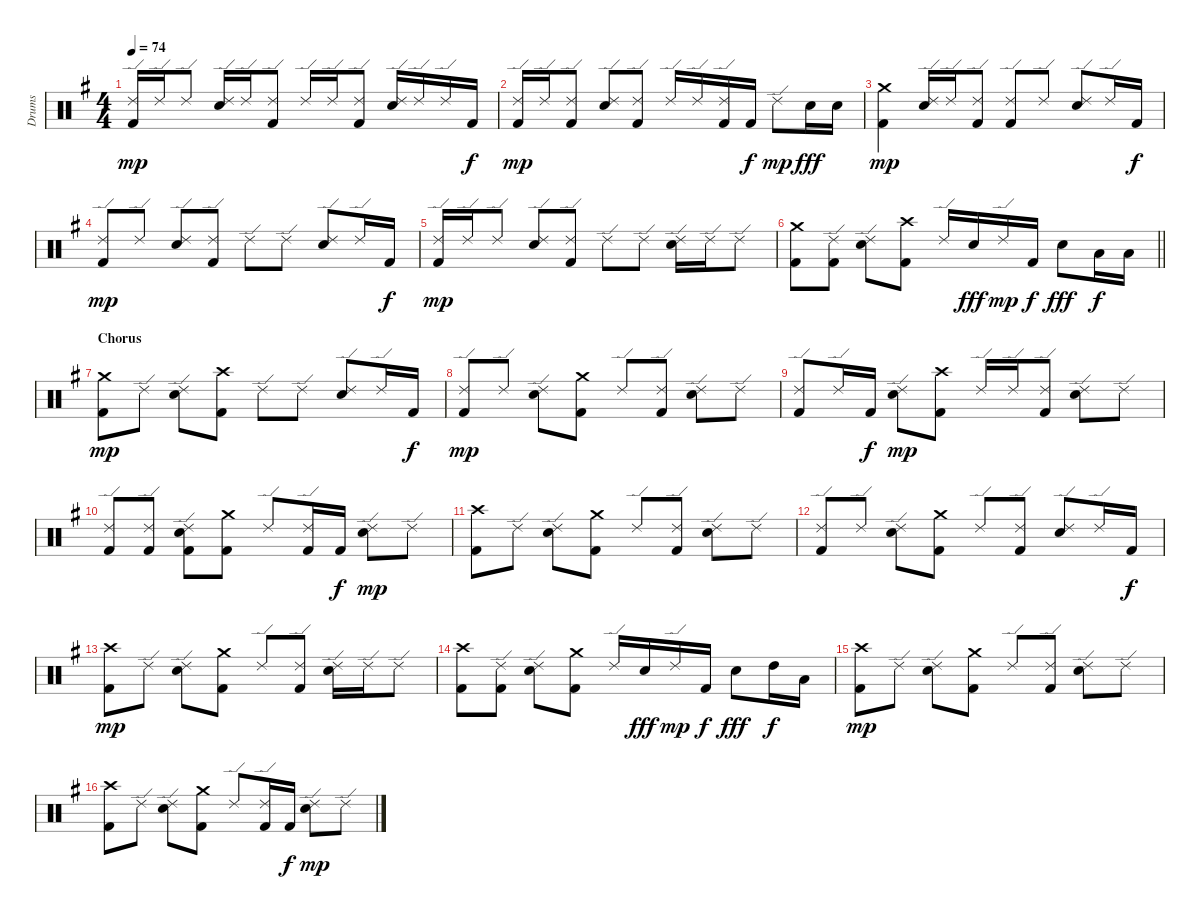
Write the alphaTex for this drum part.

\track ("Drums" "Drums") {instrument percussion}
\staff {score}
\articulation defaults
\ts (4 4)
\tempo 74
\clef neutral
\ks g
("Kick (hit) 2" "Ride (edge) 2").16{dy mp} "Ride (edge) 2".16 "Ride (edge) 2".8 ("Electric Snare (hit)" "Ride (edge) 2").16 "Ride (edge) 2".16 ("Kick (hit) 2" "Ride (edge) 2").8 "Ride (edge) 2".16 "Ride (edge) 2".16 ("Kick (hit) 2" "Ride (edge) 2").8 ("Electric Snare (hit)" "Ride (edge) 2").16 "Ride (edge) 2".16 "Ride (edge) 2".16 "Kick (hit) 2".16{dy f} |
("Kick (hit) 2" "Ride (edge) 2").16{dy mp} "Ride (edge) 2".16 ("Kick (hit) 2" "Ride (edge) 2").8 ("Electric Snare (hit)" "Ride (edge) 2").8 ("Kick (hit) 2" "Ride (edge) 2").8 "Ride (edge) 2".16 "Ride (edge) 2".16 ("Kick (hit) 2" "Ride (edge) 2").16 "Kick (hit) 2".16{dy f} "Ride (edge) 2".8{dy mp} "Electric Snare (hit)".16{dy fff} "Electric Snare (hit)".16 |
("Kick (hit) 2" "Crash medium (hit)").4{dy mp} ("Electric Snare (hit)" "Ride (edge) 2").16 "Ride (edge) 2".16 ("Kick (hit) 2" "Ride (edge) 2").8 ("Kick (hit) 2" "Ride (edge) 2").8 "Ride (edge) 2".8 ("Electric Snare (hit)" "Ride (edge) 2").8 "Ride (edge) 2".16 "Kick (hit) 2".16{dy f} |
("Kick (hit) 2" "Ride (edge) 2").8{dy mp} "Ride (edge) 2".8 ("Electric Snare (hit)" "Ride (edge) 2").8 ("Kick (hit) 2" "Ride (edge) 2").8 "Ride (edge) 2".8 "Ride (edge) 2".8 ("Electric Snare (hit)" "Ride (edge) 2").8 "Ride (edge) 2".16 "Kick (hit) 2".16{dy f} |
("Kick (hit) 2" "Ride (edge) 2").16{dy mp} "Ride (edge) 2".16 "Ride (edge) 2".8 ("Electric Snare (hit)" "Ride (edge) 2").8 ("Kick (hit) 2" "Ride (edge) 2").8 "Ride (edge) 2".8 "Ride (edge) 2".8 ("Electric Snare (hit)" "Ride (edge) 2").16 "Ride (edge) 2".16 "Ride (edge) 2".8 |
\barLineRight lightlight
("Kick (hit) 2" "Crash medium (hit)").8 ("Kick (hit) 2" "Ride (edge) 2").8 ("Electric Snare (hit)" "Ride (edge) 2").8 ("Kick (hit) 2" "Crash high (hit)").8 "Ride (edge) 2".16 "Electric Snare (hit)".16{dy fff} "Ride (edge) 2".16{dy mp} "Kick (hit) 2".16{dy f} "Electric Snare (hit)".8{dy fff} "Low Tom (hit)".16{dy f} "Low Floor Tom (hit)".16 |
\section ("" "Chorus")
("Kick (hit) 2" "Crash medium (hit)").8{dy mp} "Ride (edge) 2".8 ("Electric Snare (hit)" "Ride (edge) 2").8 ("Kick (hit) 2" "Crash high (hit)").8 "Ride (edge) 2".8 "Ride (edge) 2".8 ("Electric Snare (hit)" "Ride (edge) 2").8 "Ride (edge) 2".16 "Kick (hit) 2".16{dy f} |
("Kick (hit) 2" "Ride (edge) 2").8{dy mp} "Ride (edge) 2".8 ("Electric Snare (hit)" "Ride (edge) 2").8 ("Kick (hit) 2" "Crash medium (hit)").8 "Ride (edge) 2".8 ("Kick (hit) 2" "Ride (edge) 2").8 ("Electric Snare (hit)" "Ride (edge) 2").8 "Ride (edge) 2".8 |
("Kick (hit) 2" "Ride (edge) 2").8 "Ride (edge) 2".16 "Kick (hit) 2".16{dy f} ("Electric Snare (hit)" "Ride (edge) 2").8{dy mp} ("Kick (hit) 2" "Crash high (hit)").8 "Ride (edge) 2".16 "Ride (edge) 2".16 ("Kick (hit) 2" "Ride (edge) 2").8 ("Electric Snare (hit)" "Ride (edge) 2").8 "Ride (edge) 2".8 |
("Kick (hit) 2" "Ride (edge) 2").8 ("Kick (hit) 2" "Ride (edge) 2").8 ("Kick (hit) 2" "Electric Snare (hit)" "Ride (edge) 2").8 ("Kick (hit) 2" "Crash medium (hit)").8 "Ride (edge) 2".8 ("Kick (hit) 2" "Ride (edge) 2").16 "Kick (hit) 2".16{dy f} ("Electric Snare (hit)" "Ride (edge) 2").8{dy mp} "Ride (edge) 2".8 |
("Kick (hit) 2" "Crash high (hit)").8 "Ride (edge) 2".8 ("Electric Snare (hit)" "Ride (edge) 2").8 ("Kick (hit) 2" "Crash medium (hit)").8 "Ride (edge) 2".8 ("Kick (hit) 2" "Ride (edge) 2").8 ("Electric Snare (hit)" "Ride (edge) 2").8 "Ride (edge) 2".8 |
("Kick (hit) 2" "Ride (edge) 2").8 "Ride (edge) 2".8 ("Electric Snare (hit)" "Ride (edge) 2").8 ("Kick (hit) 2" "Crash medium (hit)").8 "Ride (edge) 2".8 ("Kick (hit) 2" "Ride (edge) 2").8 ("Electric Snare (hit)" "Ride (edge) 2").8 "Ride (edge) 2".16 "Kick (hit) 2".16{dy f} |
("Kick (hit) 2" "Crash high (hit)").8{dy mp} "Ride (edge) 2".8 ("Electric Snare (hit)" "Ride (edge) 2").8 ("Kick (hit) 2" "Crash medium (hit)").8 "Ride (edge) 2".8 ("Kick (hit) 2" "Ride (edge) 2").8 ("Electric Snare (hit)" "Ride (edge) 2").16 "Ride (edge) 2".16 "Ride (edge) 2".8 |
("Kick (hit) 2" "Crash high (hit)").8 ("Kick (hit) 2" "Ride (edge) 2").8 ("Electric Snare (hit)" "Ride (edge) 2").8 ("Kick (hit) 2" "Crash medium (hit)").8 "Ride (edge) 2".16 "Electric Snare (hit)".16{dy fff} "Ride (edge) 2".16{dy mp} "Kick (hit) 2".16{dy f} "Electric Snare (hit)".8{dy fff} "High Tom (hit)".16{dy f} "Low Tom (hit)".16 |
("Kick (hit) 2" "Crash high (hit)").8{dy mp} "Ride (edge) 2".8 ("Electric Snare (hit)" "Ride (edge) 2").8 ("Kick (hit) 2" "Crash medium (hit)").8 "Ride (edge) 2".8 ("Kick (hit) 2" "Ride (edge) 2").8 ("Electric Snare (hit)" "Ride (edge) 2").8 "Ride (edge) 2".8 |
("Kick (hit) 2" "Crash high (hit)").8 "Ride (edge) 2".8 ("Electric Snare (hit)" "Ride (edge) 2").8 ("Kick (hit) 2" "Crash medium (hit)").8 "Ride (edge) 2".8 ("Kick (hit) 2" "Ride (edge) 2").16 "Kick (hit) 2".16{dy f} ("Electric Snare (hit)" "Ride (edge) 2").8{dy mp} "Ride (edge) 2".8
